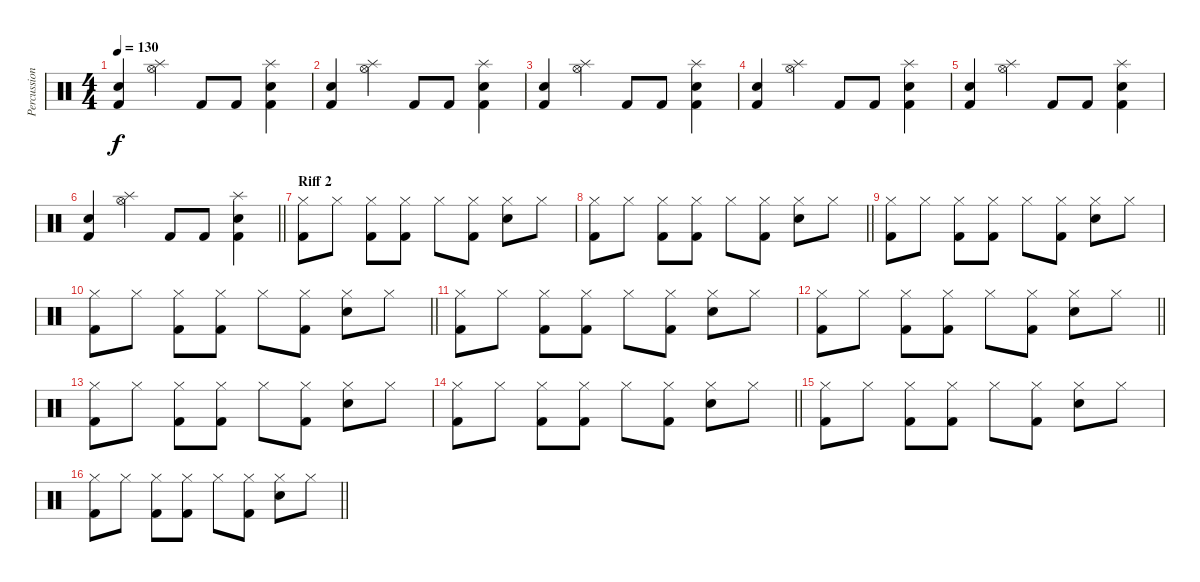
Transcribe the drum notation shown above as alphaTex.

\track ("Percussion" "Percussion") {instrument percussion}
\staff {score}
\articulation defaults
\ts (4 4)
\tempo 130
\clef neutral
\ks c
("Kick (hit) 2" "Electric Snare (hit)").4{dy f} ("Hi-Hat (open)" "Splash (hit)").4 "Kick (hit) 2".8 "Kick (hit) 2".8 ("Kick (hit) 2" "Splash (hit)" "Electric Snare (hit)").4 |
("Kick (hit) 2" "Electric Snare (hit)").4 ("Hi-Hat (open)" "Splash (hit)").4 "Kick (hit) 2".8 "Kick (hit) 2".8 ("Kick (hit) 2" "Splash (hit)" "Electric Snare (hit)").4 |
("Kick (hit) 2" "Electric Snare (hit)").4 ("Hi-Hat (open)" "Splash (hit)").4 "Kick (hit) 2".8 "Kick (hit) 2".8 ("Kick (hit) 2" "Splash (hit)" "Electric Snare (hit)").4 |
("Kick (hit) 2" "Electric Snare (hit)").4 ("Hi-Hat (open)" "Splash (hit)").4 "Kick (hit) 2".8 "Kick (hit) 2".8 ("Kick (hit) 2" "Splash (hit)" "Electric Snare (hit)").4 |
("Kick (hit) 2" "Electric Snare (hit)").4 ("Hi-Hat (open)" "Splash (hit)").4 "Kick (hit) 2".8 "Kick (hit) 2".8 ("Kick (hit) 2" "Splash (hit)" "Electric Snare (hit)").4 |
\barLineRight lightlight
("Kick (hit) 2" "Electric Snare (hit)").4 ("Hi-Hat (open)" "Splash (hit)").4 "Kick (hit) 2".8 "Kick (hit) 2".8 ("Kick (hit) 2" "Splash (hit)" "Electric Snare (hit)").4 |
\section ("" "Riff 2")
("Kick (hit) 2" "Hi-Hat (closed)").8 "Hi-Hat (closed)".8 ("Kick (hit) 2" "Hi-Hat (closed)").8 ("Kick (hit) 2" "Hi-Hat (closed)").8 "Hi-Hat (closed)".8 ("Kick (hit) 2" "Hi-Hat (closed)").8 ("Snare (hit) 2" "Hi-Hat (closed)").8 "Hi-Hat (closed)".8 |
\barLineRight lightlight
("Kick (hit) 2" "Hi-Hat (closed)").8 "Hi-Hat (closed)".8 ("Kick (hit) 2" "Hi-Hat (closed)").8 ("Kick (hit) 2" "Hi-Hat (closed)").8 "Hi-Hat (closed)".8 ("Kick (hit) 2" "Hi-Hat (closed)").8 ("Snare (hit) 2" "Hi-Hat (closed)").8 "Hi-Hat (closed)".8 |
("Kick (hit) 2" "Hi-Hat (closed)").8 "Hi-Hat (closed)".8 ("Kick (hit) 2" "Hi-Hat (closed)").8 ("Kick (hit) 2" "Hi-Hat (closed)").8 "Hi-Hat (closed)".8 ("Kick (hit) 2" "Hi-Hat (closed)").8 ("Snare (hit) 2" "Hi-Hat (closed)").8 "Hi-Hat (closed)".8 |
\barLineRight lightlight
("Kick (hit) 2" "Hi-Hat (closed)").8 "Hi-Hat (closed)".8 ("Kick (hit) 2" "Hi-Hat (closed)").8 ("Kick (hit) 2" "Hi-Hat (closed)").8 "Hi-Hat (closed)".8 ("Kick (hit) 2" "Hi-Hat (closed)").8 ("Snare (hit) 2" "Hi-Hat (closed)").8 "Hi-Hat (closed)".8 |
("Kick (hit) 2" "Hi-Hat (closed)").8 "Hi-Hat (closed)".8 ("Kick (hit) 2" "Hi-Hat (closed)").8 ("Kick (hit) 2" "Hi-Hat (closed)").8 "Hi-Hat (closed)".8 ("Kick (hit) 2" "Hi-Hat (closed)").8 ("Snare (hit) 2" "Hi-Hat (closed)").8 "Hi-Hat (closed)".8 |
\barLineRight lightlight
("Kick (hit) 2" "Hi-Hat (closed)").8 "Hi-Hat (closed)".8 ("Kick (hit) 2" "Hi-Hat (closed)").8 ("Kick (hit) 2" "Hi-Hat (closed)").8 "Hi-Hat (closed)".8 ("Kick (hit) 2" "Hi-Hat (closed)").8 ("Snare (hit) 2" "Hi-Hat (closed)").8 "Hi-Hat (closed)".8 |
("Kick (hit) 2" "Hi-Hat (closed)").8 "Hi-Hat (closed)".8 ("Kick (hit) 2" "Hi-Hat (closed)").8 ("Kick (hit) 2" "Hi-Hat (closed)").8 "Hi-Hat (closed)".8 ("Kick (hit) 2" "Hi-Hat (closed)").8 ("Snare (hit) 2" "Hi-Hat (closed)").8 "Hi-Hat (closed)".8 |
\barLineRight lightlight
("Kick (hit) 2" "Hi-Hat (closed)").8 "Hi-Hat (closed)".8 ("Kick (hit) 2" "Hi-Hat (closed)").8 ("Kick (hit) 2" "Hi-Hat (closed)").8 "Hi-Hat (closed)".8 ("Kick (hit) 2" "Hi-Hat (closed)").8 ("Snare (hit) 2" "Hi-Hat (closed)").8 "Hi-Hat (closed)".8 |
("Kick (hit) 2" "Hi-Hat (closed)").8 "Hi-Hat (closed)".8 ("Kick (hit) 2" "Hi-Hat (closed)").8 ("Kick (hit) 2" "Hi-Hat (closed)").8 "Hi-Hat (closed)".8 ("Kick (hit) 2" "Hi-Hat (closed)").8 ("Snare (hit) 2" "Hi-Hat (closed)").8 "Hi-Hat (closed)".8 |
\barLineRight lightlight
("Kick (hit) 2" "Hi-Hat (closed)").8 "Hi-Hat (closed)".8 ("Kick (hit) 2" "Hi-Hat (closed)").8 ("Kick (hit) 2" "Hi-Hat (closed)").8 "Hi-Hat (closed)".8 ("Kick (hit) 2" "Hi-Hat (closed)").8 ("Snare (hit) 2" "Hi-Hat (closed)").8 "Hi-Hat (closed)".8
